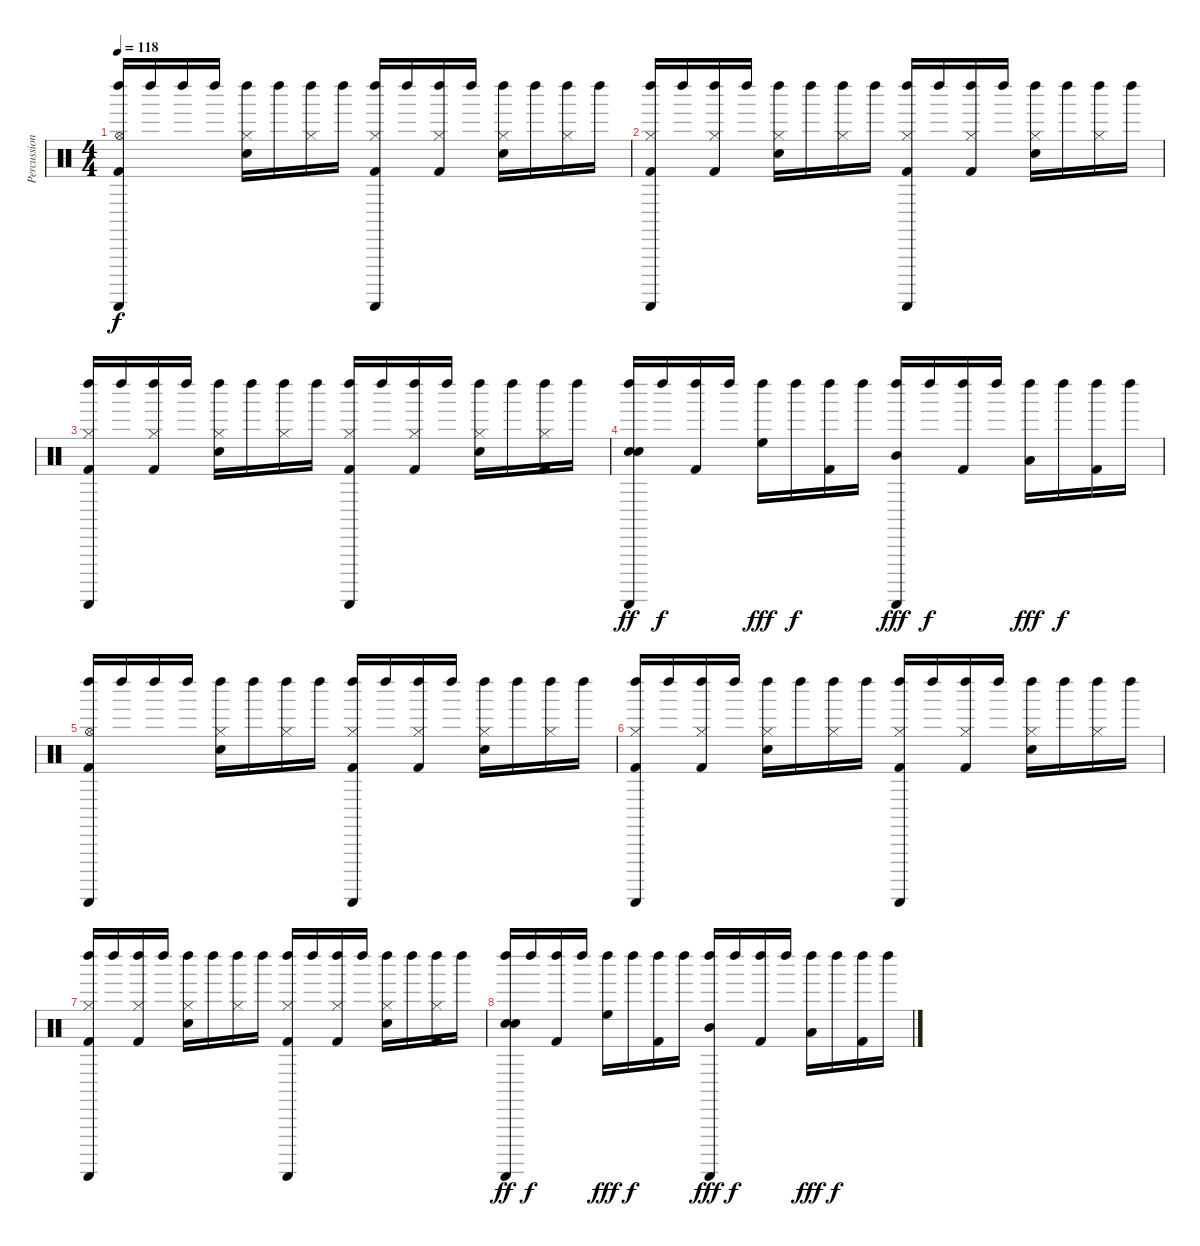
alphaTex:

\track ("Percussions" "Percussion") {instrument percussion}
\staff {score}
\articulation defaults
\ts (4 4)
\tempo 118
\clef neutral
\ks c
("Guiro (scrap-return)" "Left Maraca (hit)" "Hi-Hat (open)" "Kick (hit) 2").16{dy f} "Left Maraca (hit)".16 "Left Maraca (hit)".16 "Left Maraca (hit)".16 ("Left Maraca (hit)" "Hi-Hat (closed)" "Snare (hit) 2").16 "Left Maraca (hit)".16 ("Left Maraca (hit)" "Hi-Hat (closed)").16 "Left Maraca (hit)".16 ("Guiro (scrap-return)" "Left Maraca (hit)" "Hi-Hat (closed)" "Kick (hit) 2").16 "Left Maraca (hit)".16 ("Left Maraca (hit)" "Hi-Hat (closed)" "Kick (hit) 2").16 "Left Maraca (hit)".16 ("Left Maraca (hit)" "Hi-Hat (closed)" "Snare (hit) 2").16 "Left Maraca (hit)".16 ("Left Maraca (hit)" "Hi-Hat (closed)").16 "Left Maraca (hit)".16 |
("Guiro (scrap-return)" "Left Maraca (hit)" "Hi-Hat (closed)" "Kick (hit) 2").16 "Left Maraca (hit)".16 ("Left Maraca (hit)" "Hi-Hat (closed)" "Kick (hit) 2").16 "Left Maraca (hit)".16 ("Left Maraca (hit)" "Hi-Hat (closed)" "Snare (hit) 2").16 "Left Maraca (hit)".16 ("Left Maraca (hit)" "Hi-Hat (closed)").16 "Left Maraca (hit)".16 ("Guiro (scrap-return)" "Left Maraca (hit)" "Hi-Hat (closed)" "Kick (hit) 2").16 "Left Maraca (hit)".16 ("Left Maraca (hit)" "Hi-Hat (closed)" "Kick (hit) 2").16 "Left Maraca (hit)".16 ("Left Maraca (hit)" "Hi-Hat (closed)" "Snare (hit) 2").16 "Left Maraca (hit)".16 ("Left Maraca (hit)" "Hi-Hat (closed)").16 "Left Maraca (hit)".16 |
("Guiro (scrap-return)" "Left Maraca (hit)" "Hi-Hat (closed)" "Kick (hit) 2").16 "Left Maraca (hit)".16 ("Left Maraca (hit)" "Hi-Hat (closed)" "Kick (hit) 2").16 "Left Maraca (hit)".16 ("Left Maraca (hit)" "Hi-Hat (closed)" "Snare (hit) 2").16 "Left Maraca (hit)".16 ("Left Maraca (hit)" "Hi-Hat (closed)").16 "Left Maraca (hit)".16 ("Guiro (scrap-return)" "Left Maraca (hit)" "Hi-Hat (closed)" "Kick (hit) 2").16 "Left Maraca (hit)".16 ("Left Maraca (hit)" "Hi-Hat (closed)" "Kick (hit) 2").16 "Left Maraca (hit)".16 ("Left Maraca (hit)" "Hi-Hat (closed)" "Snare (hit) 2").16 "Left Maraca (hit)".16 ("Left Maraca (hit)" "Hi-Hat (closed)" "Kick (hit) 2").16 "Left Maraca (hit)".16 |
("Guiro (scrap-return)" "Left Maraca (hit)" "Snare (hit) 2" "Snare (hit) 2").16{dy ff} "Left Maraca (hit)".16{dy f} ("Left Maraca (hit)" "Kick (hit) 2").16 "Left Maraca (hit)".16 ("Left Maraca (hit)" "High Floor Tom (hit)").16{dy fff} "Left Maraca (hit)".16{dy f} ("Left Maraca (hit)" "Kick (hit) 2").16 "Left Maraca (hit)".16 ("Guiro (scrap-return)" "Left Maraca (hit)" "Mid Tom (hit)").16{dy fff} "Left Maraca (hit)".16{dy f} ("Left Maraca (hit)" "Kick (hit) 2").16 "Left Maraca (hit)".16 ("Left Maraca (hit)" "Low Tom (hit)").16{dy fff} "Left Maraca (hit)".16{dy f} ("Left Maraca (hit)" "Kick (hit) 2").16 "Left Maraca (hit)".16 |
("Guiro (scrap-return)" "Left Maraca (hit)" "Hi-Hat (open)" "Kick (hit) 2").16 "Left Maraca (hit)".16 "Left Maraca (hit)".16 "Left Maraca (hit)".16 ("Left Maraca (hit)" "Hi-Hat (closed)" "Snare (hit) 2").16 "Left Maraca (hit)".16 ("Left Maraca (hit)" "Hi-Hat (closed)").16 "Left Maraca (hit)".16 ("Guiro (scrap-return)" "Left Maraca (hit)" "Hi-Hat (closed)" "Kick (hit) 2").16 "Left Maraca (hit)".16 ("Left Maraca (hit)" "Hi-Hat (closed)" "Kick (hit) 2").16 "Left Maraca (hit)".16 ("Left Maraca (hit)" "Hi-Hat (closed)" "Snare (hit) 2").16 "Left Maraca (hit)".16 ("Left Maraca (hit)" "Hi-Hat (closed)").16 "Left Maraca (hit)".16 |
("Guiro (scrap-return)" "Left Maraca (hit)" "Hi-Hat (closed)" "Kick (hit) 2").16 "Left Maraca (hit)".16 ("Left Maraca (hit)" "Hi-Hat (closed)" "Kick (hit) 2").16 "Left Maraca (hit)".16 ("Left Maraca (hit)" "Hi-Hat (closed)" "Snare (hit) 2").16 "Left Maraca (hit)".16 ("Left Maraca (hit)" "Hi-Hat (closed)").16 "Left Maraca (hit)".16 ("Guiro (scrap-return)" "Left Maraca (hit)" "Hi-Hat (closed)" "Kick (hit) 2").16 "Left Maraca (hit)".16 ("Left Maraca (hit)" "Hi-Hat (closed)" "Kick (hit) 2").16 "Left Maraca (hit)".16 ("Left Maraca (hit)" "Hi-Hat (closed)" "Snare (hit) 2").16 "Left Maraca (hit)".16 ("Left Maraca (hit)" "Hi-Hat (closed)").16 "Left Maraca (hit)".16 |
("Guiro (scrap-return)" "Left Maraca (hit)" "Hi-Hat (closed)" "Kick (hit) 2").16 "Left Maraca (hit)".16 ("Left Maraca (hit)" "Hi-Hat (closed)" "Kick (hit) 2").16 "Left Maraca (hit)".16 ("Left Maraca (hit)" "Hi-Hat (closed)" "Snare (hit) 2").16 "Left Maraca (hit)".16 ("Left Maraca (hit)" "Hi-Hat (closed)").16 "Left Maraca (hit)".16 ("Guiro (scrap-return)" "Left Maraca (hit)" "Hi-Hat (closed)" "Kick (hit) 2").16 "Left Maraca (hit)".16 ("Left Maraca (hit)" "Hi-Hat (closed)" "Kick (hit) 2").16 "Left Maraca (hit)".16 ("Left Maraca (hit)" "Hi-Hat (closed)" "Snare (hit) 2").16 "Left Maraca (hit)".16 ("Left Maraca (hit)" "Hi-Hat (closed)" "Kick (hit) 2").16 "Left Maraca (hit)".16 |
("Guiro (scrap-return)" "Left Maraca (hit)" "Snare (hit) 2" "Snare (hit) 2").16{dy ff} "Left Maraca (hit)".16{dy f} ("Left Maraca (hit)" "Kick (hit) 2").16 "Left Maraca (hit)".16 ("Left Maraca (hit)" "High Floor Tom (hit)").16{dy fff} "Left Maraca (hit)".16{dy f} ("Left Maraca (hit)" "Kick (hit) 2").16 "Left Maraca (hit)".16 ("Guiro (scrap-return)" "Left Maraca (hit)" "Mid Tom (hit)").16{dy fff} "Left Maraca (hit)".16{dy f} ("Left Maraca (hit)" "Kick (hit) 2").16 "Left Maraca (hit)".16 ("Left Maraca (hit)" "Low Tom (hit)").16{dy fff} "Left Maraca (hit)".16{dy f} ("Left Maraca (hit)" "Kick (hit) 2").16 "Left Maraca (hit)".16
